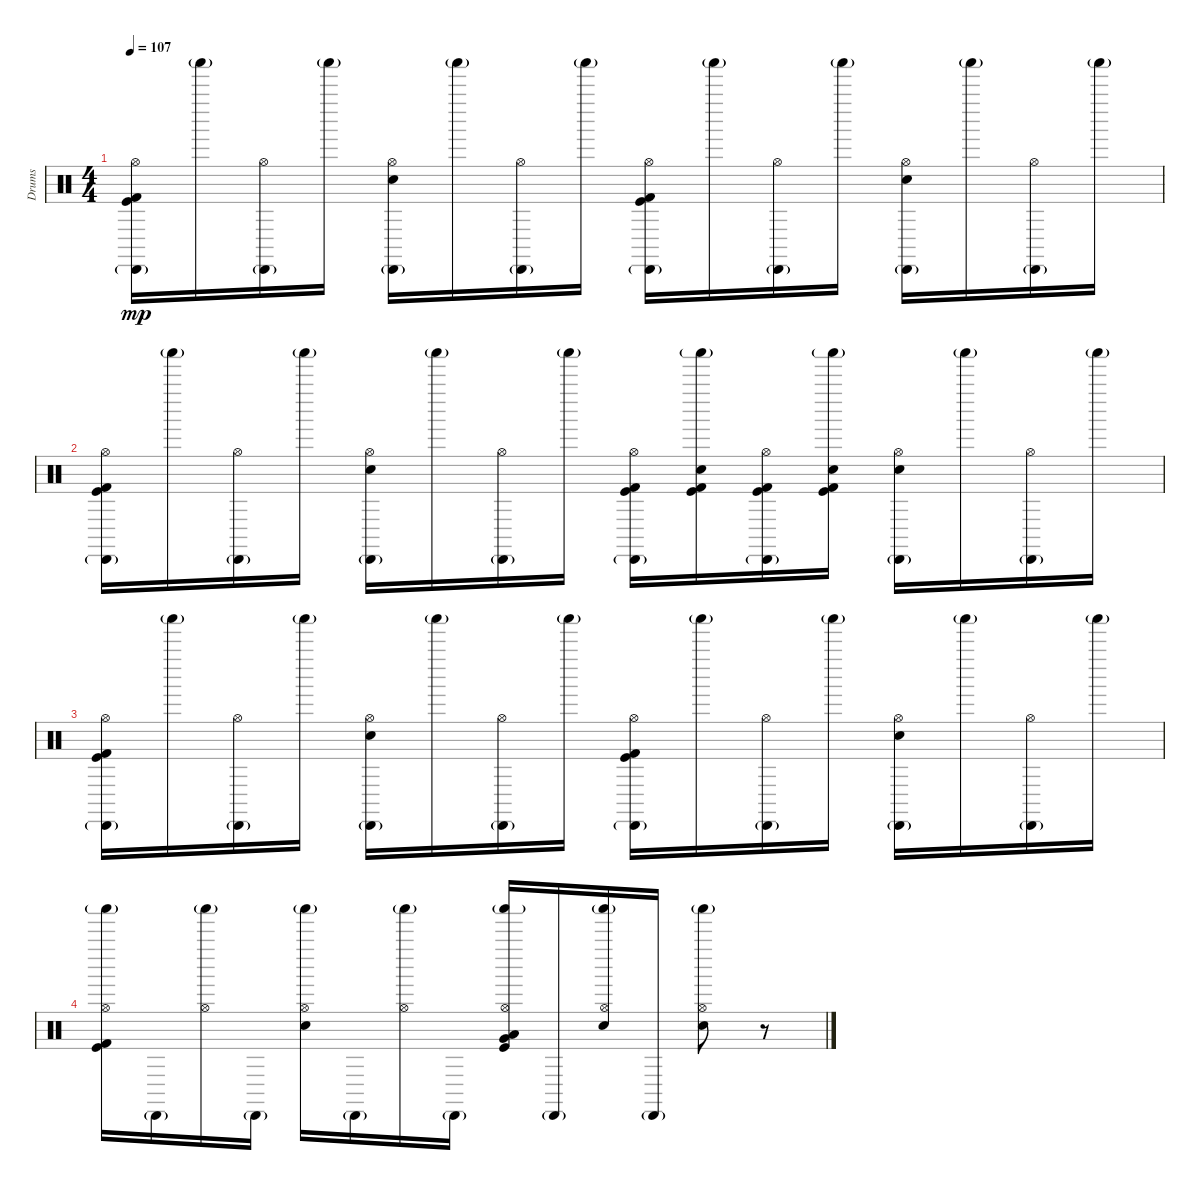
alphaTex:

\track ("Drums" "Drums") {instrument percussion}
\staff {score}
\articulation defaults
\ts (4 4)
\tempo 107
\clef neutral
\ks c
("Hi-Hat (open)" "Cabasa (hit)"{g} "Kick (hit) 2" "Kick (hit)").16{dy mp volume 12} "Shaker (hit)"{g}.16 ("Hi-Hat (open)" "Cabasa (hit)"{g}).16 "Shaker (hit)"{g}.16 ("Hi-Hat (open)" "Cabasa (hit)"{g} "Electric Snare (hit)").16 "Shaker (hit)"{g}.16 ("Hi-Hat (open)" "Cabasa (hit)"{g}).16 "Shaker (hit)"{g}.16 ("Hi-Hat (open)" "Cabasa (hit)"{g} "Kick (hit) 2" "Kick (hit)").16 "Shaker (hit)"{g}.16 ("Hi-Hat (open)" "Cabasa (hit)"{g}).16 "Shaker (hit)"{g}.16 ("Hi-Hat (open)" "Cabasa (hit)"{g} "Electric Snare (hit)").16 "Shaker (hit)"{g}.16 ("Hi-Hat (open)" "Cabasa (hit)"{g}).16 "Shaker (hit)"{g}.16 |
("Hi-Hat (open)" "Cabasa (hit)"{g} "Kick (hit) 2" "Kick (hit)").16{volume 12} "Shaker (hit)"{g}.16 ("Hi-Hat (open)" "Cabasa (hit)"{g}).16 "Shaker (hit)"{g}.16 ("Hi-Hat (open)" "Cabasa (hit)"{g} "Electric Snare (hit)").16 "Shaker (hit)"{g}.16 ("Hi-Hat (open)" "Cabasa (hit)"{g}).16 "Shaker (hit)"{g}.16 ("Hi-Hat (open)" "Cabasa (hit)"{g} "Kick (hit) 2" "Kick (hit)").16 ("Shaker (hit)"{g} "Snare (hit) 2" "Kick (hit) 2" "Kick (hit)").16 ("Hi-Hat (open)" "Cabasa (hit)"{g} "Kick (hit) 2" "Kick (hit)").16 ("Shaker (hit)"{g} "Snare (hit) 2" "Kick (hit) 2" "Kick (hit)").16 ("Hi-Hat (open)" "Cabasa (hit)"{g} "Electric Snare (hit)").16 "Shaker (hit)"{g}.16 ("Hi-Hat (open)" "Cabasa (hit)"{g}).16 "Shaker (hit)"{g}.16 |
("Hi-Hat (open)" "Cabasa (hit)"{g} "Kick (hit) 2" "Kick (hit)").16{volume 12} "Shaker (hit)"{g}.16 ("Hi-Hat (open)" "Cabasa (hit)"{g}).16 "Shaker (hit)"{g}.16 ("Hi-Hat (open)" "Cabasa (hit)"{g} "Electric Snare (hit)").16 "Shaker (hit)"{g}.16 ("Hi-Hat (open)" "Cabasa (hit)"{g}).16 "Shaker (hit)"{g}.16 ("Hi-Hat (open)" "Cabasa (hit)"{g} "Kick (hit) 2" "Kick (hit)").16 "Shaker (hit)"{g}.16 ("Hi-Hat (open)" "Cabasa (hit)"{g}).16 "Shaker (hit)"{g}.16 ("Hi-Hat (open)" "Cabasa (hit)"{g} "Electric Snare (hit)").16 "Shaker (hit)"{g}.16 ("Hi-Hat (open)" "Cabasa (hit)"{g}).16 "Shaker (hit)"{g}.16 |
("Hi-Hat (open)" "Shaker (hit)"{g} "Kick (hit) 2" "Kick (hit)").16 "Cabasa (hit)"{g}.16 ("Hi-Hat (open)" "Shaker (hit)"{g}).16 "Cabasa (hit)"{g}.16 ("Hi-Hat (open)" "Shaker (hit)"{g} "Electric Snare (hit)").16 "Cabasa (hit)"{g}.16 ("Hi-Hat (open)" "Shaker (hit)"{g}).16 "Cabasa (hit)"{g}.16 ("Hi-Hat (open)" "Shaker (hit)"{g} "Kick (hit)" "Very Low Tom (hit)" "Low Tom (hit)").16 "Cabasa (hit)"{g}.16 ("Hi-Hat (open)" "Shaker (hit)"{g} "Electric Snare (hit)").16 "Cabasa (hit)"{g}.16 ("Hi-Hat (open)" "Shaker (hit)"{g} "Electric Snare (hit)").8 r.8
